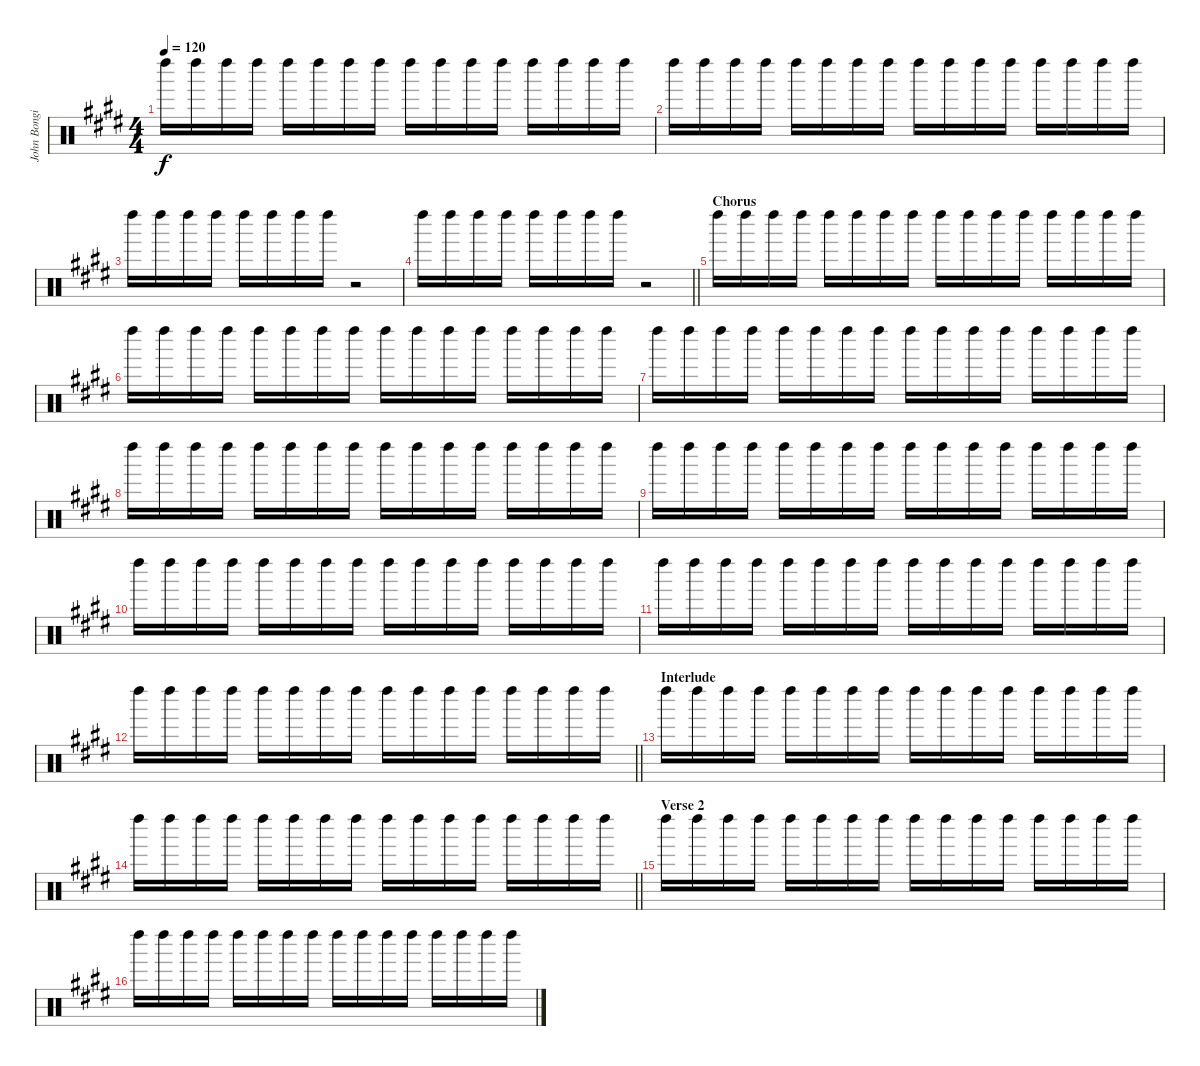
\track ("John Bongiovi (Maracas)" "John Bongi") {instrument percussion}
\staff {score}
\articulation defaults
\ts (4 4)
\tempo 120
\clef neutral
\ks c#minor "Left Maraca (hit)".16{dy f} "Left Maraca (hit)".16 "Left Maraca (hit)".16 "Left Maraca (hit)".16 "Left Maraca (hit)".16 "Left Maraca (hit)".16 "Left Maraca (hit)".16 "Left Maraca (hit)".16 "Left Maraca (hit)".16 "Left Maraca (hit)".16 "Left Maraca (hit)".16 "Left Maraca (hit)".16 "Left Maraca (hit)".16 "Left Maraca (hit)".16 "Left Maraca (hit)".16 "Left Maraca (hit)".16
|
"Left Maraca (hit)".16 "Left Maraca (hit)".16 "Left Maraca (hit)".16 "Left Maraca (hit)".16 "Left Maraca (hit)".16 "Left Maraca (hit)".16 "Left Maraca (hit)".16 "Left Maraca (hit)".16 "Left Maraca (hit)".16 "Left Maraca (hit)".16 "Left Maraca (hit)".16 "Left Maraca (hit)".16 "Left Maraca (hit)".16 "Left Maraca (hit)".16 "Left Maraca (hit)".16 "Left Maraca (hit)".16 |
"Left Maraca (hit)".16 "Left Maraca (hit)".16 "Left Maraca (hit)".16 "Left Maraca (hit)".16 "Left Maraca (hit)".16 "Left Maraca (hit)".16 "Left Maraca (hit)".16 "Left Maraca (hit)".16 r.2 |
\barLineRight lightlight "Left Maraca (hit)".16 "Left Maraca (hit)".16 "Left Maraca (hit)".16 "Left Maraca (hit)".16 "Left Maraca (hit)".16 "Left Maraca (hit)".16 "Left Maraca (hit)".16 "Left Maraca (hit)".16
r.2 |
\section ("" "Chorus")
"Left Maraca (hit)".16 "Left Maraca (hit)".16 "Left Maraca (hit)".16 "Left Maraca (hit)".16 "Left Maraca (hit)".16 "Left Maraca (hit)".16 "Left Maraca (hit)".16 "Left Maraca (hit)".16 "Left Maraca (hit)".16 "Left Maraca (hit)".16 "Left Maraca (hit)".16 "Left Maraca (hit)".16 "Left Maraca (hit)".16 "Left Maraca (hit)".16 "Left Maraca (hit)".16 "Left Maraca (hit)".16 |
"Left Maraca (hit)".16 "Left Maraca (hit)".16 "Left Maraca (hit)".16 "Left Maraca (hit)".16 "Left Maraca (hit)".16 "Left Maraca (hit)".16 "Left Maraca (hit)".16 "Left Maraca (hit)".16 "Left Maraca (hit)".16 "Left Maraca (hit)".16 "Left Maraca (hit)".16 "Left Maraca (hit)".16 "Left Maraca (hit)".16 "Left Maraca (hit)".16 "Left Maraca (hit)".16 "Left Maraca (hit)".16 |
"Left Maraca (hit)".16 "Left Maraca (hit)".16 "Left Maraca (hit)".16 "Left Maraca (hit)".16 "Left Maraca (hit)".16 "Left Maraca (hit)".16 "Left Maraca (hit)".16 "Left Maraca (hit)".16 "Left Maraca (hit)".16 "Left Maraca (hit)".16 "Left Maraca (hit)".16 "Left Maraca (hit)".16 "Left Maraca (hit)".16 "Left Maraca (hit)".16 "Left Maraca (hit)".16 "Left Maraca (hit)".16 |
"Left Maraca (hit)".16 "Left Maraca (hit)".16 "Left Maraca (hit)".16 "Left Maraca (hit)".16 "Left Maraca (hit)".16 "Left Maraca (hit)".16 "Left Maraca (hit)".16 "Left Maraca (hit)".16 "Left Maraca (hit)".16 "Left Maraca (hit)".16 "Left Maraca (hit)".16 "Left Maraca (hit)".16 "Left Maraca (hit)".16 "Left Maraca (hit)".16 "Left Maraca (hit)".16 "Left Maraca (hit)".16 |
"Left Maraca (hit)".16 "Left Maraca (hit)".16 "Left Maraca (hit)".16 "Left Maraca (hit)".16 "Left Maraca (hit)".16 "Left Maraca (hit)".16 "Left Maraca (hit)".16 "Left Maraca (hit)".16 "Left Maraca (hit)".16 "Left Maraca (hit)".16 "Left Maraca (hit)".16 "Left Maraca (hit)".16 "Left Maraca (hit)".16 "Left Maraca (hit)".16 "Left Maraca (hit)".16 "Left Maraca (hit)".16 |
"Left Maraca (hit)".16 "Left Maraca (hit)".16 "Left Maraca (hit)".16 "Left Maraca (hit)".16 "Left Maraca (hit)".16 "Left Maraca (hit)".16 "Left Maraca (hit)".16 "Left Maraca (hit)".16 "Left Maraca (hit)".16 "Left Maraca (hit)".16 "Left Maraca (hit)".16 "Left Maraca (hit)".16 "Left Maraca (hit)".16 "Left Maraca (hit)".16 "Left Maraca (hit)".16 "Left Maraca (hit)".16 |
"Left Maraca (hit)".16 "Left Maraca (hit)".16 "Left Maraca (hit)".16 "Left Maraca (hit)".16 "Left Maraca (hit)".16 "Left Maraca (hit)".16 "Left Maraca (hit)".16 "Left Maraca (hit)".16 "Left Maraca (hit)".16 "Left Maraca (hit)".16 "Left Maraca (hit)".16 "Left Maraca (hit)".16 "Left Maraca (hit)".16 "Left Maraca (hit)".16 "Left Maraca (hit)".16 "Left Maraca (hit)".16 |
\barLineRight lightlight "Left Maraca (hit)".16 "Left Maraca (hit)".16 "Left Maraca (hit)".16 "Left Maraca (hit)".16 "Left Maraca (hit)".16 "Left Maraca (hit)".16 "Left Maraca (hit)".16 "Left Maraca (hit)".16 "Left Maraca (hit)".16 "Left Maraca (hit)".16 "Left Maraca (hit)".16 "Left Maraca (hit)".16 "Left Maraca (hit)".16 "Left Maraca (hit)".16 "Left Maraca (hit)".16 "Left Maraca (hit)".16
|
\section ("" "Interlude")
"Left Maraca (hit)".16 "Left Maraca (hit)".16 "Left Maraca (hit)".16 "Left Maraca (hit)".16 "Left Maraca (hit)".16 "Left Maraca (hit)".16 "Left Maraca (hit)".16 "Left Maraca (hit)".16 "Left Maraca (hit)".16 "Left Maraca (hit)".16 "Left Maraca (hit)".16 "Left Maraca (hit)".16 "Left Maraca (hit)".16 "Left Maraca (hit)".16 "Left Maraca (hit)".16 "Left Maraca (hit)".16 |
\barLineRight lightlight "Left Maraca (hit)".16 "Left Maraca (hit)".16 "Left Maraca (hit)".16 "Left Maraca (hit)".16 "Left Maraca (hit)".16 "Left Maraca (hit)".16 "Left Maraca (hit)".16 "Left Maraca (hit)".16 "Left Maraca (hit)".16 "Left Maraca (hit)".16 "Left Maraca (hit)".16 "Left Maraca (hit)".16 "Left Maraca (hit)".16 "Left Maraca (hit)".16 "Left Maraca (hit)".16 "Left Maraca (hit)".16
|
\section ("" "Verse 2")
"Left Maraca (hit)".16 "Left Maraca (hit)".16 "Left Maraca (hit)".16 "Left Maraca (hit)".16 "Left Maraca (hit)".16 "Left Maraca (hit)".16 "Left Maraca (hit)".16 "Left Maraca (hit)".16 "Left Maraca (hit)".16 "Left Maraca (hit)".16 "Left Maraca (hit)".16 "Left Maraca (hit)".16 "Left Maraca (hit)".16 "Left Maraca (hit)".16 "Left Maraca (hit)".16 "Left Maraca (hit)".16 |
"Left Maraca (hit)".16 "Left Maraca (hit)".16 "Left Maraca (hit)".16 "Left Maraca (hit)".16 "Left Maraca (hit)".16 "Left Maraca (hit)".16 "Left Maraca (hit)".16 "Left Maraca (hit)".16 "Left Maraca (hit)".16 "Left Maraca (hit)".16 "Left Maraca (hit)".16 "Left Maraca (hit)".16 "Left Maraca (hit)".16 "Left Maraca (hit)".16 "Left Maraca (hit)".16 "Left Maraca (hit)".16
